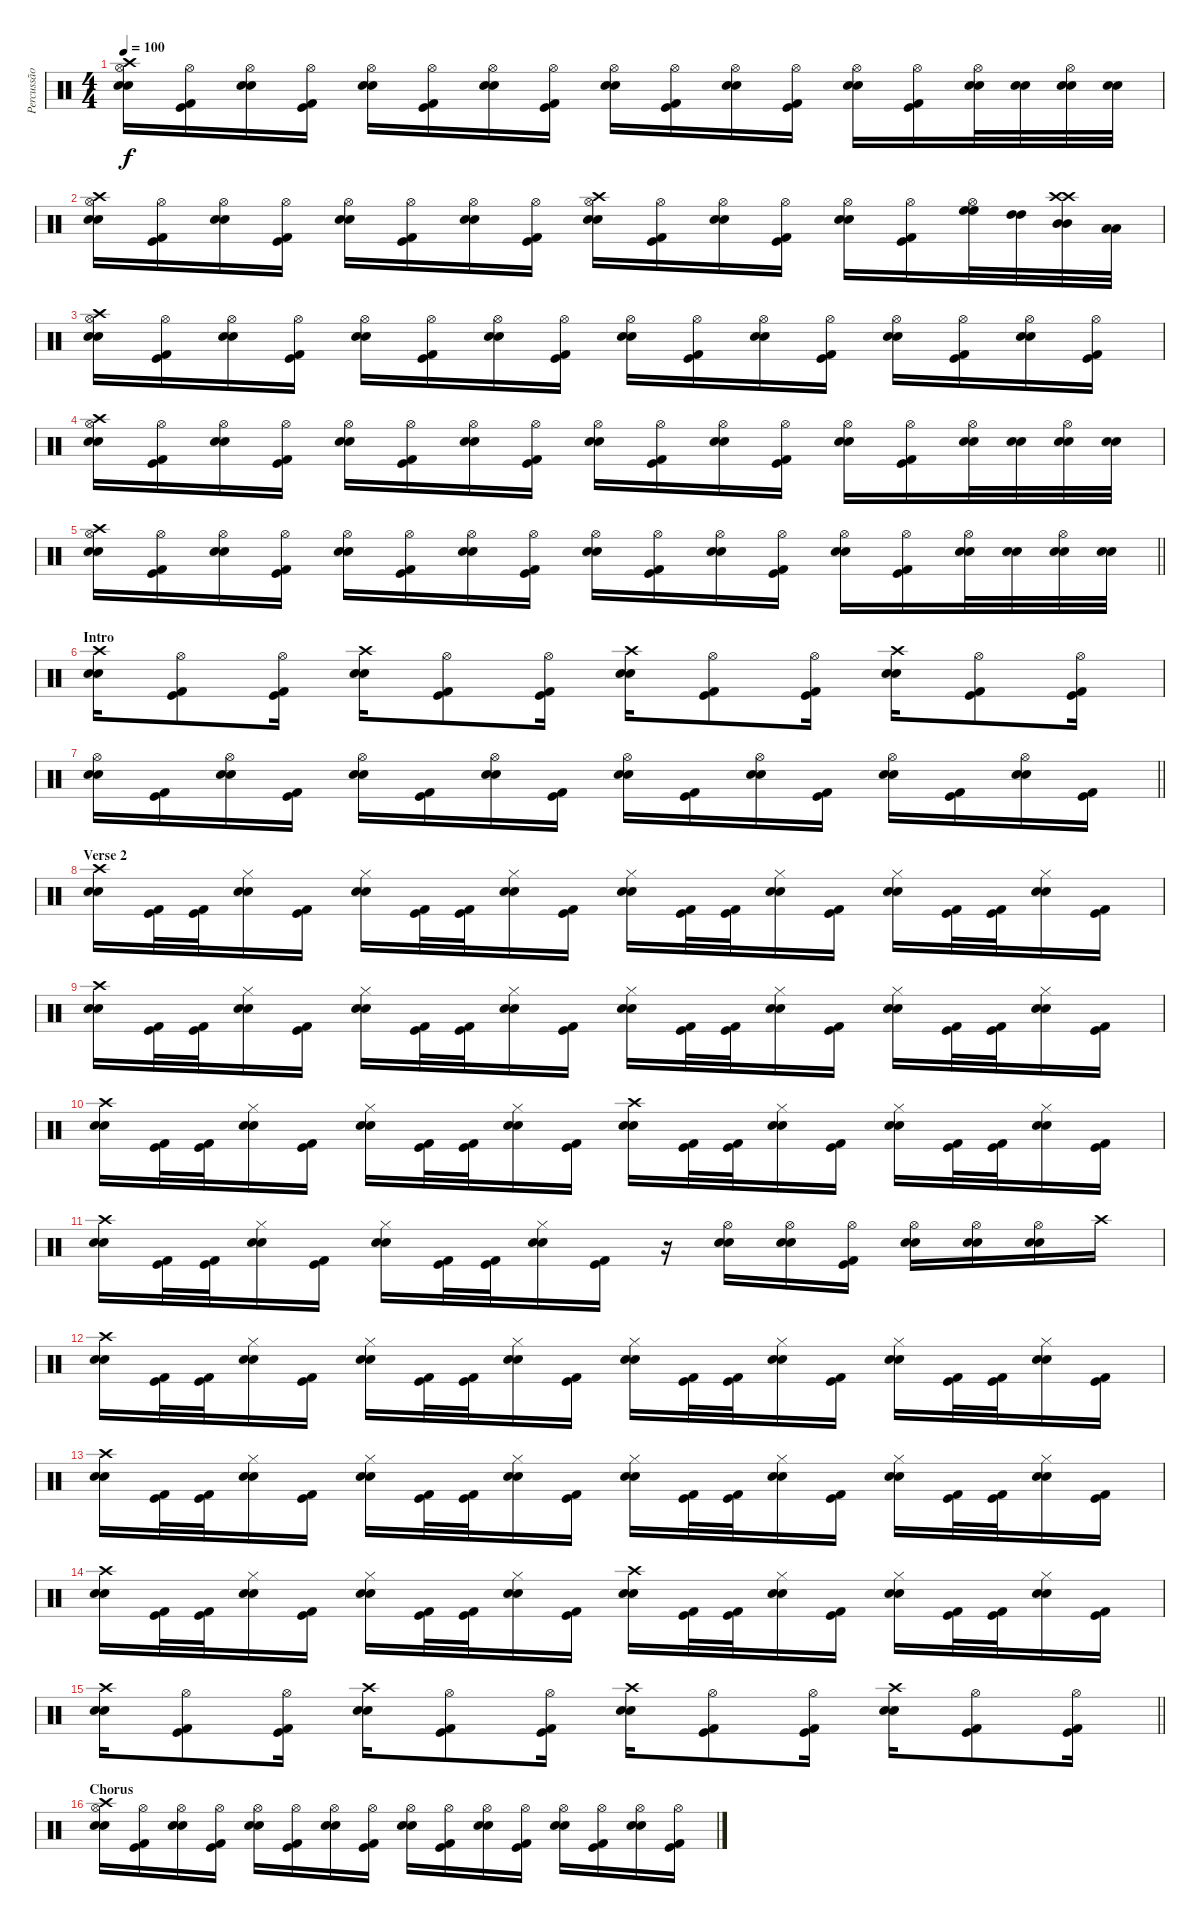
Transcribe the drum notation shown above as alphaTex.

\track ("Percussão" "Percussão") {instrument percussion}
\staff {score}
\articulation defaults
\ts (4 4)
\tempo 100
\clef neutral
\ks c
("Crash high (hit)" "Hi-Hat (open)" "Electric Snare (hit)" "Snare (hit) 2").16{dy f} ("Hi-Hat (open)" "Kick (hit) 2" "Kick (hit)").16 ("Hi-Hat (open)" "Electric Snare (hit)" "Snare (hit) 2").16 ("Hi-Hat (open)" "Kick (hit) 2" "Kick (hit)").16 ("Hi-Hat (open)" "Electric Snare (hit)" "Snare (hit) 2").16 ("Hi-Hat (open)" "Kick (hit) 2" "Kick (hit)").16 ("Hi-Hat (open)" "Electric Snare (hit)" "Snare (hit) 2").16 ("Hi-Hat (open)" "Kick (hit) 2" "Kick (hit)").16 ("Hi-Hat (open)" "Electric Snare (hit)" "Snare (hit) 2").16 ("Hi-Hat (open)" "Kick (hit) 2" "Kick (hit)").16 ("Hi-Hat (open)" "Electric Snare (hit)" "Snare (hit) 2").16 ("Hi-Hat (open)" "Kick (hit) 2" "Kick (hit)").16 ("Hi-Hat (open)" "Electric Snare (hit)" "Snare (hit) 2").16 ("Hi-Hat (open)" "Kick (hit) 2" "Kick (hit)").16 ("Hi-Hat (open)" "Electric Snare (hit)" "Snare (hit) 2").32 ("Electric Snare (hit)" "Snare (hit) 2").32 ("Hi-Hat (open)" "Electric Snare (hit)" "Snare (hit) 2").32 ("Electric Snare (hit)" "Snare (hit) 2").32 |
("Crash high (hit)" "Hi-Hat (open)" "Electric Snare (hit)" "Snare (hit) 2").16 ("Hi-Hat (open)" "Kick (hit) 2" "Kick (hit)").16 ("Hi-Hat (open)" "Electric Snare (hit)" "Snare (hit) 2").16 ("Hi-Hat (open)" "Kick (hit) 2" "Kick (hit)").16 ("Hi-Hat (open)" "Electric Snare (hit)" "Snare (hit) 2").16 ("Hi-Hat (open)" "Kick (hit) 2" "Kick (hit)").16 ("Hi-Hat (open)" "Electric Snare (hit)" "Snare (hit) 2").16 ("Hi-Hat (open)" "Kick (hit) 2" "Kick (hit)").16 ("Crash high (hit)" "Hi-Hat (open)" "Electric Snare (hit)" "Snare (hit) 2").16 ("Hi-Hat (open)" "Kick (hit) 2" "Kick (hit)").16 ("Hi-Hat (open)" "Electric Snare (hit)" "Snare (hit) 2").16 ("Hi-Hat (open)" "Kick (hit) 2" "Kick (hit)").16 ("Hi-Hat (open)" "Electric Snare (hit)" "Snare (hit) 2").16 ("Hi-Hat (open)" "Kick (hit) 2" "Kick (hit)").16 ("Hi-Hat (open)" "High Floor Tom (hit)" "High Floor Tom (hit)").32 ("High Tom (hit)" "High Tom (hit)").32 ("Crash high (hit)" "Crash high (hit)" "Mid Tom (hit)" "Mid Tom (hit)").32 ("Low Tom (hit)" "Low Tom (hit)").32 |
("Crash high (hit)" "Hi-Hat (open)" "Electric Snare (hit)" "Snare (hit) 2").16 ("Hi-Hat (open)" "Kick (hit) 2" "Kick (hit)").16 ("Hi-Hat (open)" "Electric Snare (hit)" "Snare (hit) 2").16 ("Hi-Hat (open)" "Kick (hit) 2" "Kick (hit)").16 ("Hi-Hat (open)" "Electric Snare (hit)" "Snare (hit) 2").16 ("Hi-Hat (open)" "Kick (hit) 2" "Kick (hit)").16 ("Hi-Hat (open)" "Electric Snare (hit)" "Snare (hit) 2").16 ("Hi-Hat (open)" "Kick (hit) 2" "Kick (hit)").16 ("Hi-Hat (open)" "Electric Snare (hit)" "Snare (hit) 2").16 ("Hi-Hat (open)" "Kick (hit) 2" "Kick (hit)").16 ("Hi-Hat (open)" "Electric Snare (hit)" "Snare (hit) 2").16 ("Hi-Hat (open)" "Kick (hit) 2" "Kick (hit)").16 ("Hi-Hat (open)" "Electric Snare (hit)" "Snare (hit) 2").16 ("Hi-Hat (open)" "Kick (hit) 2" "Kick (hit)").16 ("Hi-Hat (open)" "Electric Snare (hit)" "Snare (hit) 2").16 ("Hi-Hat (open)" "Kick (hit) 2" "Kick (hit)").16 |
("Crash high (hit)" "Hi-Hat (open)" "Electric Snare (hit)" "Snare (hit) 2").16 ("Hi-Hat (open)" "Kick (hit) 2" "Kick (hit)").16 ("Hi-Hat (open)" "Electric Snare (hit)" "Snare (hit) 2").16 ("Hi-Hat (open)" "Kick (hit) 2" "Kick (hit)").16 ("Hi-Hat (open)" "Electric Snare (hit)" "Snare (hit) 2").16 ("Hi-Hat (open)" "Kick (hit) 2" "Kick (hit)").16 ("Hi-Hat (open)" "Electric Snare (hit)" "Snare (hit) 2").16 ("Hi-Hat (open)" "Kick (hit) 2" "Kick (hit)").16 ("Hi-Hat (open)" "Electric Snare (hit)" "Snare (hit) 2").16 ("Hi-Hat (open)" "Kick (hit) 2" "Kick (hit)").16 ("Hi-Hat (open)" "Electric Snare (hit)" "Snare (hit) 2").16 ("Hi-Hat (open)" "Kick (hit) 2" "Kick (hit)").16 ("Hi-Hat (open)" "Electric Snare (hit)" "Snare (hit) 2").16 ("Hi-Hat (open)" "Kick (hit) 2" "Kick (hit)").16 ("Hi-Hat (open)" "Electric Snare (hit)" "Snare (hit) 2").32 ("Electric Snare (hit)" "Snare (hit) 2").32 ("Hi-Hat (open)" "Electric Snare (hit)" "Snare (hit) 2").32 ("Electric Snare (hit)" "Snare (hit) 2").32 |
\barLineRight lightlight
("Crash high (hit)" "Hi-Hat (open)" "Electric Snare (hit)" "Snare (hit) 2").16 ("Hi-Hat (open)" "Kick (hit) 2" "Kick (hit)").16 ("Hi-Hat (open)" "Electric Snare (hit)" "Snare (hit) 2").16 ("Hi-Hat (open)" "Kick (hit) 2" "Kick (hit)").16 ("Hi-Hat (open)" "Electric Snare (hit)" "Snare (hit) 2").16 ("Hi-Hat (open)" "Kick (hit) 2" "Kick (hit)").16 ("Hi-Hat (open)" "Electric Snare (hit)" "Snare (hit) 2").16 ("Hi-Hat (open)" "Kick (hit) 2" "Kick (hit)").16 ("Hi-Hat (open)" "Electric Snare (hit)" "Snare (hit) 2").16 ("Hi-Hat (open)" "Kick (hit) 2" "Kick (hit)").16 ("Hi-Hat (open)" "Electric Snare (hit)" "Snare (hit) 2").16 ("Hi-Hat (open)" "Kick (hit) 2" "Kick (hit)").16 ("Hi-Hat (open)" "Electric Snare (hit)" "Snare (hit) 2").16 ("Hi-Hat (open)" "Kick (hit) 2" "Kick (hit)").16 ("Hi-Hat (open)" "Electric Snare (hit)" "Snare (hit) 2").32 ("Electric Snare (hit)" "Snare (hit) 2").32 ("Hi-Hat (open)" "Electric Snare (hit)" "Snare (hit) 2").32 ("Electric Snare (hit)" "Snare (hit) 2").32 |
\section ("" "Intro")
("Crash high (hit)" "Electric Snare (hit)" "Snare (hit) 2").16 ("Hi-Hat (open)" "Kick (hit) 2" "Kick (hit)").8 ("Hi-Hat (open)" "Kick (hit) 2" "Kick (hit)").16 ("Crash high (hit)" "Electric Snare (hit)" "Snare (hit) 2").16 ("Hi-Hat (open)" "Kick (hit) 2" "Kick (hit)").8 ("Hi-Hat (open)" "Kick (hit) 2" "Kick (hit)").16 ("Crash high (hit)" "Electric Snare (hit)" "Snare (hit) 2").16 ("Hi-Hat (open)" "Kick (hit) 2" "Kick (hit)").8 ("Hi-Hat (open)" "Kick (hit) 2" "Kick (hit)").16 ("Crash high (hit)" "Electric Snare (hit)" "Snare (hit) 2").16 ("Hi-Hat (open)" "Kick (hit) 2" "Kick (hit)").8 ("Hi-Hat (open)" "Kick (hit) 2" "Kick (hit)").16 |
\barLineRight lightlight
("Hi-Hat (open)" "Electric Snare (hit)" "Snare (hit) 2").16 ("Kick (hit) 2" "Kick (hit)").16 ("Hi-Hat (open)" "Electric Snare (hit)" "Snare (hit) 2").16 ("Kick (hit) 2" "Kick (hit)").16 ("Hi-Hat (open)" "Electric Snare (hit)" "Snare (hit) 2").16 ("Kick (hit) 2" "Kick (hit)").16 ("Hi-Hat (open)" "Electric Snare (hit)" "Snare (hit) 2").16 ("Kick (hit) 2" "Kick (hit)").16 ("Hi-Hat (open)" "Electric Snare (hit)" "Snare (hit) 2").16 ("Kick (hit) 2" "Kick (hit)").16 ("Hi-Hat (open)" "Electric Snare (hit)" "Snare (hit) 2").16 ("Kick (hit) 2" "Kick (hit)").16 ("Hi-Hat (open)" "Electric Snare (hit)" "Snare (hit) 2").16 ("Kick (hit) 2" "Kick (hit)").16 ("Hi-Hat (open)" "Electric Snare (hit)" "Snare (hit) 2").16 ("Kick (hit) 2" "Kick (hit)").16 |
\section ("" "Verse 2")
("Crash high (hit)" "Electric Snare (hit)" "Snare (hit) 2").16 ("Kick (hit) 2" "Kick (hit)").32 ("Kick (hit) 2" "Kick (hit)").32 ("Hi-Hat (closed)" "Electric Snare (hit)" "Snare (hit) 2").16 ("Kick (hit) 2" "Kick (hit)").16 ("Hi-Hat (closed)" "Electric Snare (hit)" "Snare (hit) 2").16 ("Kick (hit) 2" "Kick (hit)").32 ("Kick (hit) 2" "Kick (hit)").32 ("Hi-Hat (closed)" "Electric Snare (hit)" "Snare (hit) 2").16 ("Kick (hit) 2" "Kick (hit)").16 ("Hi-Hat (closed)" "Electric Snare (hit)" "Snare (hit) 2").16 ("Kick (hit) 2" "Kick (hit)").32 ("Kick (hit) 2" "Kick (hit)").32 ("Hi-Hat (closed)" "Electric Snare (hit)" "Snare (hit) 2").16 ("Kick (hit) 2" "Kick (hit)").16 ("Hi-Hat (closed)" "Electric Snare (hit)" "Snare (hit) 2").16 ("Kick (hit) 2" "Kick (hit)").32 ("Kick (hit) 2" "Kick (hit)").32 ("Hi-Hat (closed)" "Electric Snare (hit)" "Snare (hit) 2").16 ("Kick (hit) 2" "Kick (hit)").16 |
("Crash high (hit)" "Electric Snare (hit)" "Snare (hit) 2").16 ("Kick (hit) 2" "Kick (hit)").32 ("Kick (hit) 2" "Kick (hit)").32 ("Hi-Hat (closed)" "Electric Snare (hit)" "Snare (hit) 2").16 ("Kick (hit) 2" "Kick (hit)").16 ("Hi-Hat (closed)" "Electric Snare (hit)" "Snare (hit) 2").16 ("Kick (hit) 2" "Kick (hit)").32 ("Kick (hit) 2" "Kick (hit)").32 ("Hi-Hat (closed)" "Electric Snare (hit)" "Snare (hit) 2").16 ("Kick (hit) 2" "Kick (hit)").16 ("Hi-Hat (closed)" "Electric Snare (hit)" "Snare (hit) 2").16 ("Kick (hit) 2" "Kick (hit)").32 ("Kick (hit) 2" "Kick (hit)").32 ("Hi-Hat (closed)" "Electric Snare (hit)" "Snare (hit) 2").16 ("Kick (hit) 2" "Kick (hit)").16 ("Hi-Hat (closed)" "Electric Snare (hit)" "Snare (hit) 2").16 ("Kick (hit) 2" "Kick (hit)").32 ("Kick (hit) 2" "Kick (hit)").32 ("Hi-Hat (closed)" "Electric Snare (hit)" "Snare (hit) 2").16 ("Kick (hit) 2" "Kick (hit)").16 |
("Crash high (hit)" "Electric Snare (hit)" "Snare (hit) 2").16 ("Kick (hit) 2" "Kick (hit)").32 ("Kick (hit) 2" "Kick (hit)").32 ("Hi-Hat (closed)" "Electric Snare (hit)" "Snare (hit) 2").16 ("Kick (hit) 2" "Kick (hit)").16 ("Hi-Hat (closed)" "Electric Snare (hit)" "Snare (hit) 2").16 ("Kick (hit) 2" "Kick (hit)").32 ("Kick (hit) 2" "Kick (hit)").32 ("Hi-Hat (closed)" "Electric Snare (hit)" "Snare (hit) 2").16 ("Kick (hit) 2" "Kick (hit)").16 ("Crash high (hit)" "Electric Snare (hit)" "Snare (hit) 2").16 ("Kick (hit) 2" "Kick (hit)").32 ("Kick (hit) 2" "Kick (hit)").32 ("Hi-Hat (closed)" "Electric Snare (hit)" "Snare (hit) 2").16 ("Kick (hit) 2" "Kick (hit)").16 ("Hi-Hat (closed)" "Electric Snare (hit)" "Snare (hit) 2").16 ("Kick (hit) 2" "Kick (hit)").32 ("Kick (hit) 2" "Kick (hit)").32 ("Hi-Hat (closed)" "Electric Snare (hit)" "Snare (hit) 2").16 ("Kick (hit) 2" "Kick (hit)").16 |
("Crash high (hit)" "Electric Snare (hit)" "Snare (hit) 2").16 ("Kick (hit) 2" "Kick (hit)").32 ("Kick (hit) 2" "Kick (hit)").32 ("Hi-Hat (closed)" "Electric Snare (hit)" "Snare (hit) 2").16 ("Kick (hit) 2" "Kick (hit)").16 ("Hi-Hat (closed)" "Electric Snare (hit)" "Snare (hit) 2").16 ("Kick (hit) 2" "Kick (hit)").32 ("Kick (hit) 2" "Kick (hit)").32 ("Hi-Hat (closed)" "Electric Snare (hit)" "Snare (hit) 2").16 ("Kick (hit) 2" "Kick (hit)").16 r.16 ("Hi-Hat (open)" "Electric Snare (hit)" "Snare (hit) 2").16 ("Hi-Hat (open)" "Electric Snare (hit)" "Snare (hit) 2").16 ("Hi-Hat (open)" "Kick (hit) 2" "Kick (hit)").16 ("Hi-Hat (open)" "Electric Snare (hit)" "Snare (hit) 2").16 ("Hi-Hat (open)" "Electric Snare (hit)" "Snare (hit) 2").16 ("Hi-Hat (open)" "Electric Snare (hit)" "Snare (hit) 2").16 "Crash high (hit)".16 |
("Crash high (hit)" "Electric Snare (hit)" "Snare (hit) 2").16 ("Kick (hit) 2" "Kick (hit)").32 ("Kick (hit) 2" "Kick (hit)").32 ("Hi-Hat (closed)" "Electric Snare (hit)" "Snare (hit) 2").16 ("Kick (hit) 2" "Kick (hit)").16 ("Hi-Hat (closed)" "Electric Snare (hit)" "Snare (hit) 2").16 ("Kick (hit) 2" "Kick (hit)").32 ("Kick (hit) 2" "Kick (hit)").32 ("Hi-Hat (closed)" "Electric Snare (hit)" "Snare (hit) 2").16 ("Kick (hit) 2" "Kick (hit)").16 ("Hi-Hat (closed)" "Electric Snare (hit)" "Snare (hit) 2").16 ("Kick (hit) 2" "Kick (hit)").32 ("Kick (hit) 2" "Kick (hit)").32 ("Hi-Hat (closed)" "Electric Snare (hit)" "Snare (hit) 2").16 ("Kick (hit) 2" "Kick (hit)").16 ("Hi-Hat (closed)" "Electric Snare (hit)" "Snare (hit) 2").16 ("Kick (hit) 2" "Kick (hit)").32 ("Kick (hit) 2" "Kick (hit)").32 ("Hi-Hat (closed)" "Electric Snare (hit)" "Snare (hit) 2").16 ("Kick (hit) 2" "Kick (hit)").16 |
("Crash high (hit)" "Electric Snare (hit)" "Snare (hit) 2").16 ("Kick (hit) 2" "Kick (hit)").32 ("Kick (hit) 2" "Kick (hit)").32 ("Hi-Hat (closed)" "Electric Snare (hit)" "Snare (hit) 2").16 ("Kick (hit) 2" "Kick (hit)").16 ("Hi-Hat (closed)" "Electric Snare (hit)" "Snare (hit) 2").16 ("Kick (hit) 2" "Kick (hit)").32 ("Kick (hit) 2" "Kick (hit)").32 ("Hi-Hat (closed)" "Electric Snare (hit)" "Snare (hit) 2").16 ("Kick (hit) 2" "Kick (hit)").16 ("Hi-Hat (closed)" "Electric Snare (hit)" "Snare (hit) 2").16 ("Kick (hit) 2" "Kick (hit)").32 ("Kick (hit) 2" "Kick (hit)").32 ("Hi-Hat (closed)" "Electric Snare (hit)" "Snare (hit) 2").16 ("Kick (hit) 2" "Kick (hit)").16 ("Hi-Hat (closed)" "Electric Snare (hit)" "Snare (hit) 2").16 ("Kick (hit) 2" "Kick (hit)").32 ("Kick (hit) 2" "Kick (hit)").32 ("Hi-Hat (closed)" "Electric Snare (hit)" "Snare (hit) 2").16 ("Kick (hit) 2" "Kick (hit)").16 |
("Crash high (hit)" "Electric Snare (hit)" "Snare (hit) 2").16 ("Kick (hit) 2" "Kick (hit)").32 ("Kick (hit) 2" "Kick (hit)").32 ("Hi-Hat (closed)" "Electric Snare (hit)" "Snare (hit) 2").16 ("Kick (hit) 2" "Kick (hit)").16 ("Hi-Hat (closed)" "Electric Snare (hit)" "Snare (hit) 2").16 ("Kick (hit) 2" "Kick (hit)").32 ("Kick (hit) 2" "Kick (hit)").32 ("Hi-Hat (closed)" "Electric Snare (hit)" "Snare (hit) 2").16 ("Kick (hit) 2" "Kick (hit)").16 ("Crash high (hit)" "Electric Snare (hit)" "Snare (hit) 2").16 ("Kick (hit) 2" "Kick (hit)").32 ("Kick (hit) 2" "Kick (hit)").32 ("Hi-Hat (closed)" "Electric Snare (hit)" "Snare (hit) 2").16 ("Kick (hit) 2" "Kick (hit)").16 ("Hi-Hat (closed)" "Electric Snare (hit)" "Snare (hit) 2").16 ("Kick (hit) 2" "Kick (hit)").32 ("Kick (hit) 2" "Kick (hit)").32 ("Hi-Hat (closed)" "Electric Snare (hit)" "Snare (hit) 2").16 ("Kick (hit) 2" "Kick (hit)").16 |
\barLineRight lightlight
("Crash high (hit)" "Electric Snare (hit)" "Snare (hit) 2").16 ("Hi-Hat (open)" "Kick (hit) 2" "Kick (hit)").8 ("Hi-Hat (open)" "Kick (hit) 2" "Kick (hit)").16 ("Crash high (hit)" "Electric Snare (hit)" "Snare (hit) 2").16 ("Hi-Hat (open)" "Kick (hit) 2" "Kick (hit)").8 ("Hi-Hat (open)" "Kick (hit) 2" "Kick (hit)").16 ("Crash high (hit)" "Electric Snare (hit)" "Snare (hit) 2").16 ("Hi-Hat (open)" "Kick (hit) 2" "Kick (hit)").8 ("Hi-Hat (open)" "Kick (hit) 2" "Kick (hit)").16 ("Crash high (hit)" "Electric Snare (hit)" "Snare (hit) 2").16 ("Hi-Hat (open)" "Kick (hit) 2" "Kick (hit)").8 ("Hi-Hat (open)" "Kick (hit) 2" "Kick (hit)").16 |
\section ("" "Chorus")
("Crash high (hit)" "Hi-Hat (open)" "Electric Snare (hit)" "Snare (hit) 2").16 ("Hi-Hat (open)" "Kick (hit) 2" "Kick (hit)").16 ("Hi-Hat (open)" "Electric Snare (hit)" "Snare (hit) 2").16 ("Hi-Hat (open)" "Kick (hit) 2" "Kick (hit)").16 ("Hi-Hat (open)" "Electric Snare (hit)" "Snare (hit) 2").16 ("Hi-Hat (open)" "Kick (hit) 2" "Kick (hit)").16 ("Hi-Hat (open)" "Electric Snare (hit)" "Snare (hit) 2").16 ("Hi-Hat (open)" "Kick (hit) 2" "Kick (hit)").16 ("Hi-Hat (open)" "Electric Snare (hit)" "Snare (hit) 2").16 ("Hi-Hat (open)" "Kick (hit) 2" "Kick (hit)").16 ("Hi-Hat (open)" "Electric Snare (hit)" "Snare (hit) 2").16 ("Hi-Hat (open)" "Kick (hit) 2" "Kick (hit)").16 ("Hi-Hat (open)" "Electric Snare (hit)" "Snare (hit) 2").16 ("Hi-Hat (open)" "Kick (hit) 2" "Kick (hit)").16 ("Hi-Hat (open)" "Electric Snare (hit)" "Snare (hit) 2").16 ("Hi-Hat (open)" "Kick (hit) 2" "Kick (hit)").16
